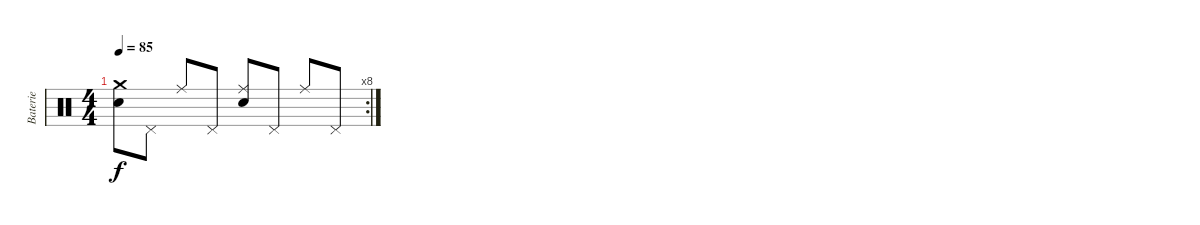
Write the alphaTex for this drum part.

\track ("Baterie" "Baterie") {instrument percussion}
\staff {score}
\articulation defaults
\rc 8
\ts (4 4)
\tempo 85
\clef neutral
\ks c
("Crash medium (hit)" "Electric Snare (hit)").8{dy f} "Pedal Hi-Hat (hit)".8 "Ride (middle)".8 "Pedal Hi-Hat (hit)".8 ("Ride (middle)" "Electric Snare (hit)").8 "Pedal Hi-Hat (hit)".8 "Ride (middle)".8 "Pedal Hi-Hat (hit)".8
